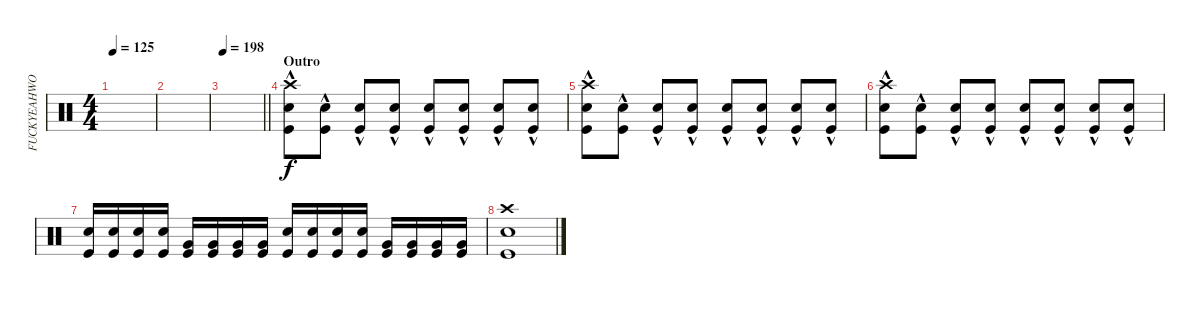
\track ("FUCKYEAHWOOTDAVEMACKINTOSH(Percussion)" "FUCKYEAHWO") {instrument percussion}
\staff {score}
\articulation defaults
\ts (4 4)
\tempo 125
\clef neutral
\ks c
|
|
\tempo 198
\barLineRight lightlight
|
\section ("" "Outro")
("Snare (hit) 2" "Kick (hit)"{hac} "Crash high (hit)").8 ("Snare (hit) 2" "Kick (hit)"{hac}).8 ("Kick (hit)"{hac} "Snare (hit) 2").8 ("Kick (hit)"{hac} "Snare (hit) 2").8 ("Kick (hit)"{hac} "Snare (hit) 2").8 ("Kick (hit)"{hac} "Snare (hit) 2").8 ("Snare (hit) 2" "Kick (hit)"{hac}).8 ("Kick (hit)"{hac} "Snare (hit) 2").8 |
("Snare (hit) 2" "Kick (hit)"{hac} "Crash high (hit)").8 ("Snare (hit) 2" "Kick (hit)"{hac}).8 ("Kick (hit)"{hac} "Snare (hit) 2").8 ("Kick (hit)"{hac} "Snare (hit) 2").8 ("Kick (hit)"{hac} "Snare (hit) 2").8 ("Kick (hit)"{hac} "Snare (hit) 2").8 ("Snare (hit) 2" "Kick (hit)"{hac}).8 ("Kick (hit)"{hac} "Snare (hit) 2").8 |
("Snare (hit) 2" "Kick (hit)"{hac} "Crash high (hit)").8 ("Snare (hit) 2" "Kick (hit)"{hac}).8 ("Kick (hit)"{hac} "Snare (hit) 2").8 ("Kick (hit)"{hac} "Snare (hit) 2").8 ("Kick (hit)"{hac} "Snare (hit) 2").8 ("Kick (hit)"{hac} "Snare (hit) 2").8 ("Snare (hit) 2" "Kick (hit)"{hac}).8 ("Kick (hit)"{hac} "Snare (hit) 2").8 |
("Snare (hit) 2" "Kick (hit)").16 ("Snare (hit) 2" "Kick (hit)").16 ("Snare (hit) 2" "Kick (hit)").16 ("Snare (hit) 2" "Kick (hit)").16 ("Very Low Tom (hit)" "Kick (hit)").16 ("Very Low Tom (hit)" "Kick (hit)").16 ("Very Low Tom (hit)" "Kick (hit)").16 ("Very Low Tom (hit)" "Kick (hit)").16 ("Snare (hit) 2" "Kick (hit)").16 ("Snare (hit) 2" "Kick (hit)").16 ("Snare (hit) 2" "Kick (hit)").16 ("Snare (hit) 2" "Kick (hit)").16 ("Very Low Tom (hit)" "Kick (hit)").16 ("Very Low Tom (hit)" "Kick (hit)").16 ("Very Low Tom (hit)" "Kick (hit)").16 ("Very Low Tom (hit)" "Kick (hit)").16 |
("Crash high (hit)" "Kick (hit)" "Snare (hit) 2").1
